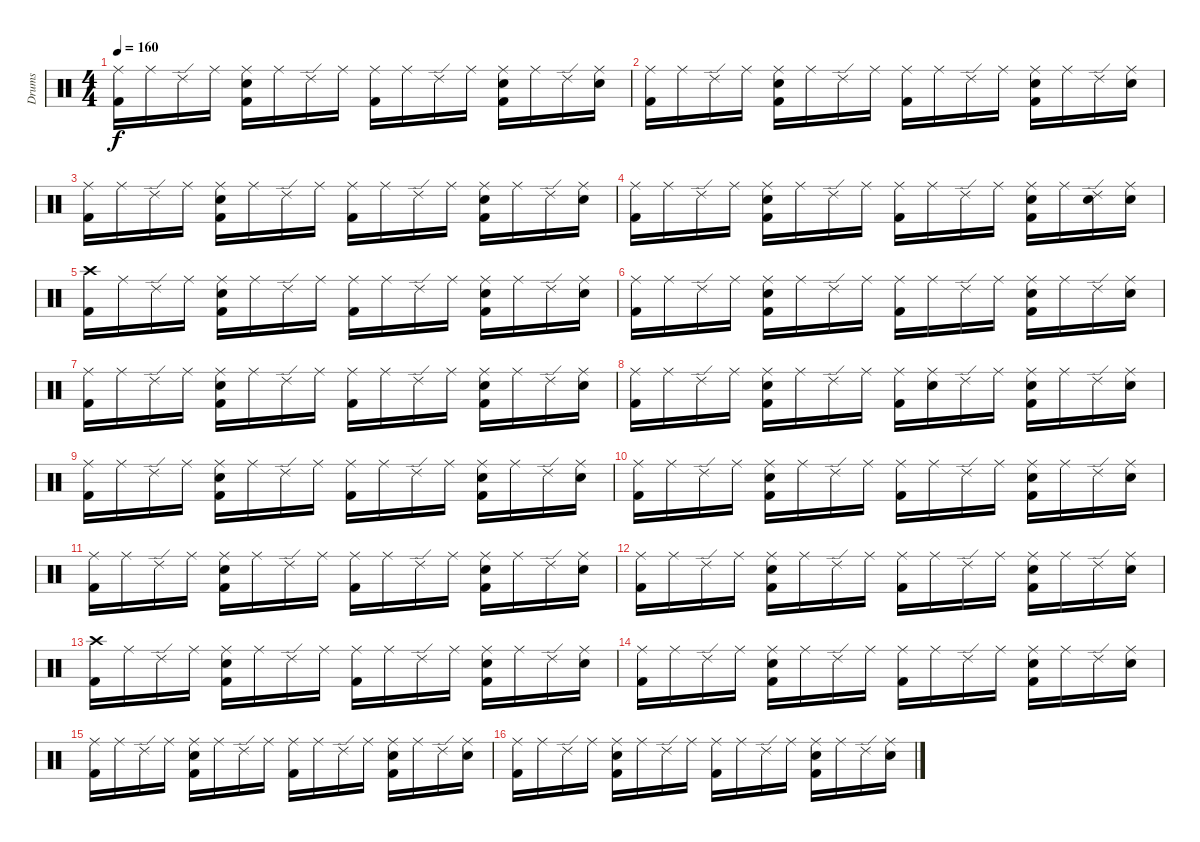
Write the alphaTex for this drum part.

\track ("Drums" "Drums") {instrument percussion}
\staff {score}
\articulation defaults
\ts (4 4)
\tempo 160
\clef neutral
\ks c
("Ride (middle)" "Kick (hit) 2").16{dy f} "Ride (middle)".16 "Ride (edge) 2".16 "Ride (middle)".16 ("Ride (middle)" "Electric Snare (hit)" "Kick (hit) 2").16 "Ride (middle)".16 "Ride (edge) 2".16 "Ride (middle)".16 ("Ride (middle)" "Kick (hit) 2").16 "Ride (middle)".16 "Ride (edge) 2".16 "Ride (middle)".16 ("Ride (middle)" "Electric Snare (hit)" "Kick (hit) 2").16 "Ride (middle)".16 "Ride (edge) 2".16 ("Ride (middle)" "Electric Snare (hit)").16 |
("Ride (middle)" "Kick (hit) 2").16 "Ride (middle)".16 "Ride (edge) 2".16 "Ride (middle)".16 ("Ride (middle)" "Electric Snare (hit)" "Kick (hit) 2").16 "Ride (middle)".16 "Ride (edge) 2".16 "Ride (middle)".16 ("Ride (middle)" "Kick (hit) 2").16 "Ride (middle)".16 "Ride (edge) 2".16 "Ride (middle)".16 ("Ride (middle)" "Electric Snare (hit)" "Kick (hit) 2").16 "Ride (middle)".16 "Ride (edge) 2".16 ("Ride (middle)" "Electric Snare (hit)").16 |
("Ride (middle)" "Kick (hit) 2").16 "Ride (middle)".16 "Ride (edge) 2".16 "Ride (middle)".16 ("Ride (middle)" "Electric Snare (hit)" "Kick (hit) 2").16 "Ride (middle)".16 "Ride (edge) 2".16 "Ride (middle)".16 ("Ride (middle)" "Kick (hit) 2").16 "Ride (middle)".16 "Ride (edge) 2".16 "Ride (middle)".16 ("Ride (middle)" "Electric Snare (hit)" "Kick (hit) 2").16 "Ride (middle)".16 "Ride (edge) 2".16 ("Ride (middle)" "Electric Snare (hit)").16 |
("Ride (middle)" "Kick (hit) 2").16 "Ride (middle)".16 "Ride (edge) 2".16 "Ride (middle)".16 ("Ride (middle)" "Electric Snare (hit)" "Kick (hit) 2").16 "Ride (middle)".16 "Ride (edge) 2".16 "Ride (middle)".16 ("Ride (middle)" "Kick (hit) 2").16 "Ride (middle)".16 "Ride (edge) 2".16 "Ride (middle)".16 ("Ride (middle)" "Electric Snare (hit)" "Kick (hit) 2").16 "Ride (middle)".16 ("Ride (edge) 2" "Electric Snare (hit)").16 ("Ride (middle)" "Electric Snare (hit)").16 |
("Crash high (hit)" "Kick (hit) 2").16 "Ride (middle)".16 "Ride (edge) 2".16 "Ride (middle)".16 ("Ride (middle)" "Electric Snare (hit)" "Kick (hit) 2").16 "Ride (middle)".16 "Ride (edge) 2".16 "Ride (middle)".16 ("Ride (middle)" "Kick (hit) 2").16 "Ride (middle)".16 "Ride (edge) 2".16 "Ride (middle)".16 ("Ride (middle)" "Electric Snare (hit)" "Kick (hit) 2").16 "Ride (middle)".16 "Ride (edge) 2".16 ("Ride (middle)" "Electric Snare (hit)").16 |
("Ride (middle)" "Kick (hit) 2").16 "Ride (middle)".16 "Ride (edge) 2".16 "Ride (middle)".16 ("Ride (middle)" "Electric Snare (hit)" "Kick (hit) 2").16 "Ride (middle)".16 "Ride (edge) 2".16 "Ride (middle)".16 ("Ride (middle)" "Kick (hit) 2").16 "Ride (middle)".16 "Ride (edge) 2".16 "Ride (middle)".16 ("Ride (middle)" "Electric Snare (hit)" "Kick (hit) 2").16 "Ride (middle)".16 "Ride (edge) 2".16 ("Ride (middle)" "Electric Snare (hit)").16 |
("Ride (middle)" "Kick (hit) 2").16 "Ride (middle)".16 "Ride (edge) 2".16 "Ride (middle)".16 ("Ride (middle)" "Electric Snare (hit)" "Kick (hit) 2").16 "Ride (middle)".16 "Ride (edge) 2".16 "Ride (middle)".16 ("Ride (middle)" "Kick (hit) 2").16 "Ride (middle)".16 "Ride (edge) 2".16 "Ride (middle)".16 ("Ride (middle)" "Electric Snare (hit)" "Kick (hit) 2").16 "Ride (middle)".16 "Ride (edge) 2".16 ("Ride (middle)" "Electric Snare (hit)").16 |
("Ride (middle)" "Kick (hit) 2").16 "Ride (middle)".16 "Ride (edge) 2".16 "Ride (middle)".16 ("Ride (middle)" "Electric Snare (hit)" "Kick (hit) 2").16 "Ride (middle)".16 "Ride (edge) 2".16 "Ride (middle)".16 ("Ride (middle)" "Kick (hit) 2").16 ("Ride (middle)" "Electric Snare (hit)").16 "Ride (edge) 2".16 "Ride (middle)".16 ("Ride (middle)" "Electric Snare (hit)" "Kick (hit) 2").16 "Ride (middle)".16 "Ride (edge) 2".16 ("Ride (middle)" "Electric Snare (hit)").16 |
("Ride (middle)" "Kick (hit) 2").16 "Ride (middle)".16 "Ride (edge) 2".16 "Ride (middle)".16 ("Ride (middle)" "Electric Snare (hit)" "Kick (hit) 2").16 "Ride (middle)".16 "Ride (edge) 2".16 "Ride (middle)".16 ("Ride (middle)" "Kick (hit) 2").16 "Ride (middle)".16 "Ride (edge) 2".16 "Ride (middle)".16 ("Ride (middle)" "Electric Snare (hit)" "Kick (hit) 2").16 "Ride (middle)".16 "Ride (edge) 2".16 ("Ride (middle)" "Electric Snare (hit)").16 |
("Ride (middle)" "Kick (hit) 2").16 "Ride (middle)".16 "Ride (edge) 2".16 "Ride (middle)".16 ("Ride (middle)" "Electric Snare (hit)" "Kick (hit) 2").16 "Ride (middle)".16 "Ride (edge) 2".16 "Ride (middle)".16 ("Ride (middle)" "Kick (hit) 2").16 "Ride (middle)".16 "Ride (edge) 2".16 "Ride (middle)".16 ("Ride (middle)" "Electric Snare (hit)" "Kick (hit) 2").16 "Ride (middle)".16 "Ride (edge) 2".16 ("Ride (middle)" "Electric Snare (hit)").16 |
("Ride (middle)" "Kick (hit) 2").16 "Ride (middle)".16 "Ride (edge) 2".16 "Ride (middle)".16 ("Ride (middle)" "Electric Snare (hit)" "Kick (hit) 2").16 "Ride (middle)".16 "Ride (edge) 2".16 "Ride (middle)".16 ("Ride (middle)" "Kick (hit) 2").16 "Ride (middle)".16 "Ride (edge) 2".16 "Ride (middle)".16 ("Ride (middle)" "Electric Snare (hit)" "Kick (hit) 2").16 "Ride (middle)".16 "Ride (edge) 2".16 ("Ride (middle)" "Electric Snare (hit)").16 |
("Ride (middle)" "Kick (hit) 2").16 "Ride (middle)".16 "Ride (edge) 2".16 "Ride (middle)".16 ("Ride (middle)" "Electric Snare (hit)" "Kick (hit) 2").16 "Ride (middle)".16 "Ride (edge) 2".16 "Ride (middle)".16 ("Ride (middle)" "Kick (hit) 2").16 "Ride (middle)".16 "Ride (edge) 2".16 "Ride (middle)".16 ("Ride (middle)" "Electric Snare (hit)" "Kick (hit) 2").16 "Ride (middle)".16 "Ride (edge) 2".16 ("Ride (middle)" "Electric Snare (hit)").16 |
("Crash high (hit)" "Kick (hit) 2").16 "Ride (middle)".16 "Ride (edge) 2".16 "Ride (middle)".16 ("Ride (middle)" "Electric Snare (hit)" "Kick (hit) 2").16 "Ride (middle)".16 "Ride (edge) 2".16 "Ride (middle)".16 ("Ride (middle)" "Kick (hit) 2").16 "Ride (middle)".16 "Ride (edge) 2".16 "Ride (middle)".16 ("Ride (middle)" "Electric Snare (hit)" "Kick (hit) 2").16 "Ride (middle)".16 "Ride (edge) 2".16 ("Ride (middle)" "Electric Snare (hit)").16 |
("Ride (middle)" "Kick (hit) 2").16 "Ride (middle)".16 "Ride (edge) 2".16 "Ride (middle)".16 ("Ride (middle)" "Electric Snare (hit)" "Kick (hit) 2").16 "Ride (middle)".16 "Ride (edge) 2".16 "Ride (middle)".16 ("Ride (middle)" "Kick (hit) 2").16 "Ride (middle)".16 "Ride (edge) 2".16 "Ride (middle)".16 ("Ride (middle)" "Electric Snare (hit)" "Kick (hit) 2").16 "Ride (middle)".16 "Ride (edge) 2".16 ("Ride (middle)" "Electric Snare (hit)").16 |
("Ride (middle)" "Kick (hit) 2").16 "Ride (middle)".16 "Ride (edge) 2".16 "Ride (middle)".16 ("Ride (middle)" "Electric Snare (hit)" "Kick (hit) 2").16 "Ride (middle)".16 "Ride (edge) 2".16 "Ride (middle)".16 ("Ride (middle)" "Kick (hit) 2").16 "Ride (middle)".16 "Ride (edge) 2".16 "Ride (middle)".16 ("Ride (middle)" "Electric Snare (hit)" "Kick (hit) 2").16 "Ride (middle)".16 "Ride (edge) 2".16 ("Ride (middle)" "Electric Snare (hit)").16 |
("Ride (middle)" "Kick (hit) 2").16 "Ride (middle)".16 "Ride (edge) 2".16 "Ride (middle)".16 ("Ride (middle)" "Electric Snare (hit)" "Kick (hit) 2").16 "Ride (middle)".16 "Ride (edge) 2".16 "Ride (middle)".16 ("Ride (middle)" "Kick (hit) 2").16 "Ride (middle)".16 "Ride (edge) 2".16 "Ride (middle)".16 ("Ride (middle)" "Electric Snare (hit)" "Kick (hit) 2").16 "Ride (middle)".16 "Ride (edge) 2".16 ("Ride (middle)" "Electric Snare (hit)").16
